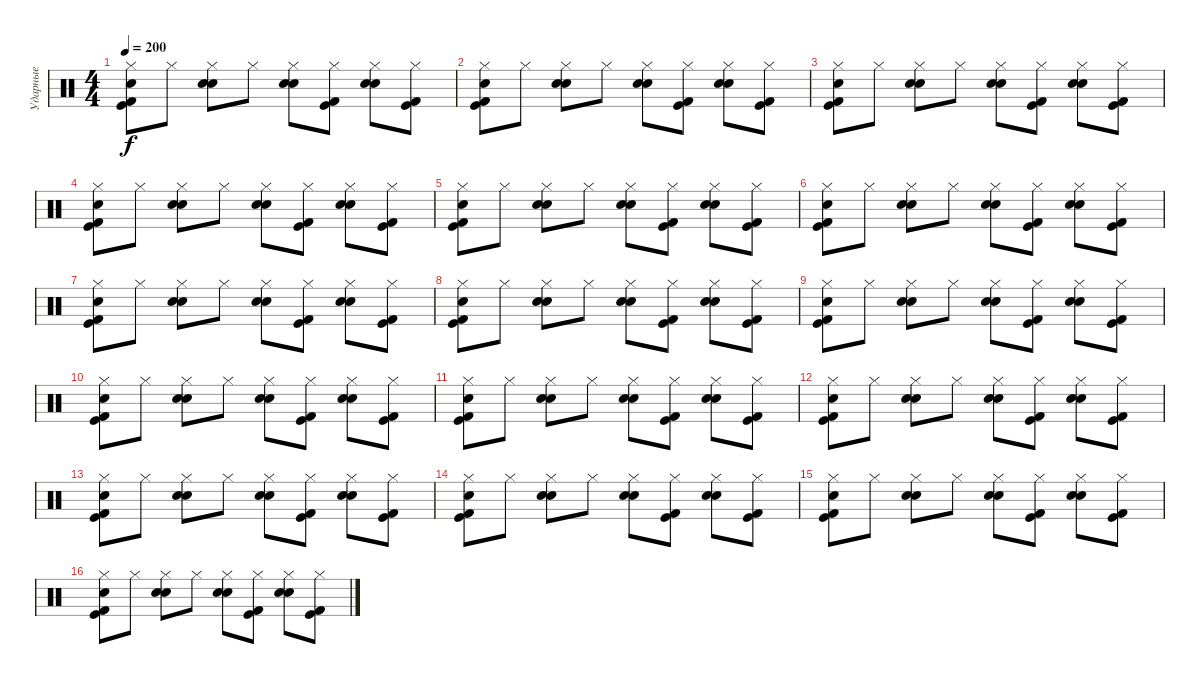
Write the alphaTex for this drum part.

\track ("Ударные" "Ударные") {instrument percussion}
\staff {score}
\articulation defaults
\ts (4 4)
\tempo 200
\clef neutral
\ks c
("Hi-Hat (closed)" "Hand Clap (hit)" "Kick (hit) 2" "Kick (hit)").8{dy f} "Hi-Hat (closed)".8 ("Hi-Hat (closed)" "Hand Clap (hit)" "Electric Snare (hit)").8 "Hi-Hat (closed)".8 ("Hi-Hat (closed)" "Hand Clap (hit)" "Electric Snare (hit)").8 ("Hi-Hat (closed)" "Kick (hit) 2" "Kick (hit)").8 ("Hi-Hat (closed)" "Hand Clap (hit)" "Electric Snare (hit)").8 ("Hi-Hat (closed)" "Kick (hit) 2" "Kick (hit)").8 |
("Hi-Hat (closed)" "Hand Clap (hit)" "Kick (hit) 2" "Kick (hit)").8 "Hi-Hat (closed)".8 ("Hi-Hat (closed)" "Hand Clap (hit)" "Electric Snare (hit)").8 "Hi-Hat (closed)".8 ("Hi-Hat (closed)" "Hand Clap (hit)" "Electric Snare (hit)").8 ("Hi-Hat (closed)" "Kick (hit) 2" "Kick (hit)").8 ("Hi-Hat (closed)" "Hand Clap (hit)" "Electric Snare (hit)").8 ("Hi-Hat (closed)" "Kick (hit) 2" "Kick (hit)").8 |
("Hi-Hat (closed)" "Hand Clap (hit)" "Kick (hit) 2" "Kick (hit)").8 "Hi-Hat (closed)".8 ("Hi-Hat (closed)" "Hand Clap (hit)" "Electric Snare (hit)").8 "Hi-Hat (closed)".8 ("Hi-Hat (closed)" "Hand Clap (hit)" "Electric Snare (hit)").8 ("Hi-Hat (closed)" "Kick (hit) 2" "Kick (hit)").8 ("Hi-Hat (closed)" "Hand Clap (hit)" "Electric Snare (hit)").8 ("Hi-Hat (closed)" "Kick (hit) 2" "Kick (hit)").8 |
("Hi-Hat (closed)" "Hand Clap (hit)" "Kick (hit) 2" "Kick (hit)").8 "Hi-Hat (closed)".8 ("Hi-Hat (closed)" "Hand Clap (hit)" "Electric Snare (hit)").8 "Hi-Hat (closed)".8 ("Hi-Hat (closed)" "Hand Clap (hit)" "Electric Snare (hit)").8 ("Hi-Hat (closed)" "Kick (hit) 2" "Kick (hit)").8 ("Hi-Hat (closed)" "Hand Clap (hit)" "Electric Snare (hit)").8 ("Hi-Hat (closed)" "Kick (hit) 2" "Kick (hit)").8 |
("Hi-Hat (closed)" "Hand Clap (hit)" "Kick (hit) 2" "Kick (hit)").8 "Hi-Hat (closed)".8 ("Hi-Hat (closed)" "Hand Clap (hit)" "Electric Snare (hit)").8 "Hi-Hat (closed)".8 ("Hi-Hat (closed)" "Hand Clap (hit)" "Electric Snare (hit)").8 ("Hi-Hat (closed)" "Kick (hit) 2" "Kick (hit)").8 ("Hi-Hat (closed)" "Hand Clap (hit)" "Electric Snare (hit)").8 ("Hi-Hat (closed)" "Kick (hit) 2" "Kick (hit)").8 |
("Hi-Hat (closed)" "Hand Clap (hit)" "Kick (hit) 2" "Kick (hit)").8 "Hi-Hat (closed)".8 ("Hi-Hat (closed)" "Hand Clap (hit)" "Electric Snare (hit)").8 "Hi-Hat (closed)".8 ("Hi-Hat (closed)" "Hand Clap (hit)" "Electric Snare (hit)").8 ("Hi-Hat (closed)" "Kick (hit) 2" "Kick (hit)").8 ("Hi-Hat (closed)" "Hand Clap (hit)" "Electric Snare (hit)").8 ("Hi-Hat (closed)" "Kick (hit) 2" "Kick (hit)").8 |
("Hi-Hat (closed)" "Hand Clap (hit)" "Kick (hit) 2" "Kick (hit)").8 "Hi-Hat (closed)".8 ("Hi-Hat (closed)" "Hand Clap (hit)" "Electric Snare (hit)").8 "Hi-Hat (closed)".8 ("Hi-Hat (closed)" "Hand Clap (hit)" "Electric Snare (hit)").8 ("Hi-Hat (closed)" "Kick (hit) 2" "Kick (hit)").8 ("Hi-Hat (closed)" "Hand Clap (hit)" "Electric Snare (hit)").8 ("Hi-Hat (closed)" "Kick (hit) 2" "Kick (hit)").8 |
("Hi-Hat (closed)" "Hand Clap (hit)" "Kick (hit) 2" "Kick (hit)").8 "Hi-Hat (closed)".8 ("Hi-Hat (closed)" "Hand Clap (hit)" "Electric Snare (hit)").8 "Hi-Hat (closed)".8 ("Hi-Hat (closed)" "Hand Clap (hit)" "Electric Snare (hit)").8 ("Hi-Hat (closed)" "Kick (hit) 2" "Kick (hit)").8 ("Hi-Hat (closed)" "Hand Clap (hit)" "Electric Snare (hit)").8 ("Hi-Hat (closed)" "Kick (hit) 2" "Kick (hit)").8 |
("Hi-Hat (closed)" "Hand Clap (hit)" "Kick (hit) 2" "Kick (hit)").8 "Hi-Hat (closed)".8 ("Hi-Hat (closed)" "Hand Clap (hit)" "Electric Snare (hit)").8 "Hi-Hat (closed)".8 ("Hi-Hat (closed)" "Hand Clap (hit)" "Electric Snare (hit)").8 ("Hi-Hat (closed)" "Kick (hit) 2" "Kick (hit)").8 ("Hi-Hat (closed)" "Hand Clap (hit)" "Electric Snare (hit)").8 ("Hi-Hat (closed)" "Kick (hit) 2" "Kick (hit)").8 |
("Hi-Hat (closed)" "Hand Clap (hit)" "Kick (hit) 2" "Kick (hit)").8 "Hi-Hat (closed)".8 ("Hi-Hat (closed)" "Hand Clap (hit)" "Electric Snare (hit)").8 "Hi-Hat (closed)".8 ("Hi-Hat (closed)" "Hand Clap (hit)" "Electric Snare (hit)").8 ("Hi-Hat (closed)" "Kick (hit) 2" "Kick (hit)").8 ("Hi-Hat (closed)" "Hand Clap (hit)" "Electric Snare (hit)").8 ("Hi-Hat (closed)" "Kick (hit) 2" "Kick (hit)").8 |
("Hi-Hat (closed)" "Hand Clap (hit)" "Kick (hit) 2" "Kick (hit)").8 "Hi-Hat (closed)".8 ("Hi-Hat (closed)" "Hand Clap (hit)" "Electric Snare (hit)").8 "Hi-Hat (closed)".8 ("Hi-Hat (closed)" "Hand Clap (hit)" "Electric Snare (hit)").8 ("Hi-Hat (closed)" "Kick (hit) 2" "Kick (hit)").8 ("Hi-Hat (closed)" "Hand Clap (hit)" "Electric Snare (hit)").8 ("Hi-Hat (closed)" "Kick (hit) 2" "Kick (hit)").8 |
("Hi-Hat (closed)" "Hand Clap (hit)" "Kick (hit) 2" "Kick (hit)").8 "Hi-Hat (closed)".8 ("Hi-Hat (closed)" "Hand Clap (hit)" "Electric Snare (hit)").8 "Hi-Hat (closed)".8 ("Hi-Hat (closed)" "Hand Clap (hit)" "Electric Snare (hit)").8 ("Hi-Hat (closed)" "Kick (hit) 2" "Kick (hit)").8 ("Hi-Hat (closed)" "Hand Clap (hit)" "Electric Snare (hit)").8 ("Hi-Hat (closed)" "Kick (hit) 2" "Kick (hit)").8 |
("Hi-Hat (closed)" "Hand Clap (hit)" "Kick (hit) 2" "Kick (hit)").8 "Hi-Hat (closed)".8 ("Hi-Hat (closed)" "Hand Clap (hit)" "Electric Snare (hit)").8 "Hi-Hat (closed)".8 ("Hi-Hat (closed)" "Hand Clap (hit)" "Electric Snare (hit)").8 ("Hi-Hat (closed)" "Kick (hit) 2" "Kick (hit)").8 ("Hi-Hat (closed)" "Hand Clap (hit)" "Electric Snare (hit)").8 ("Hi-Hat (closed)" "Kick (hit) 2" "Kick (hit)").8 |
("Hi-Hat (closed)" "Hand Clap (hit)" "Kick (hit) 2" "Kick (hit)").8 "Hi-Hat (closed)".8 ("Hi-Hat (closed)" "Hand Clap (hit)" "Electric Snare (hit)").8 "Hi-Hat (closed)".8 ("Hi-Hat (closed)" "Hand Clap (hit)" "Electric Snare (hit)").8 ("Hi-Hat (closed)" "Kick (hit) 2" "Kick (hit)").8 ("Hi-Hat (closed)" "Hand Clap (hit)" "Electric Snare (hit)").8 ("Hi-Hat (closed)" "Kick (hit) 2" "Kick (hit)").8 |
("Hi-Hat (closed)" "Hand Clap (hit)" "Kick (hit) 2" "Kick (hit)").8 "Hi-Hat (closed)".8 ("Hi-Hat (closed)" "Hand Clap (hit)" "Electric Snare (hit)").8 "Hi-Hat (closed)".8 ("Hi-Hat (closed)" "Hand Clap (hit)" "Electric Snare (hit)").8 ("Hi-Hat (closed)" "Kick (hit) 2" "Kick (hit)").8 ("Hi-Hat (closed)" "Hand Clap (hit)" "Electric Snare (hit)").8 ("Hi-Hat (closed)" "Kick (hit) 2" "Kick (hit)").8 |
("Hi-Hat (closed)" "Hand Clap (hit)" "Kick (hit) 2" "Kick (hit)").8 "Hi-Hat (closed)".8 ("Hi-Hat (closed)" "Hand Clap (hit)" "Electric Snare (hit)").8 "Hi-Hat (closed)".8 ("Hi-Hat (closed)" "Hand Clap (hit)" "Electric Snare (hit)").8 ("Hi-Hat (closed)" "Kick (hit) 2" "Kick (hit)").8 ("Hi-Hat (closed)" "Hand Clap (hit)" "Electric Snare (hit)").8 ("Hi-Hat (closed)" "Kick (hit) 2" "Kick (hit)").8
